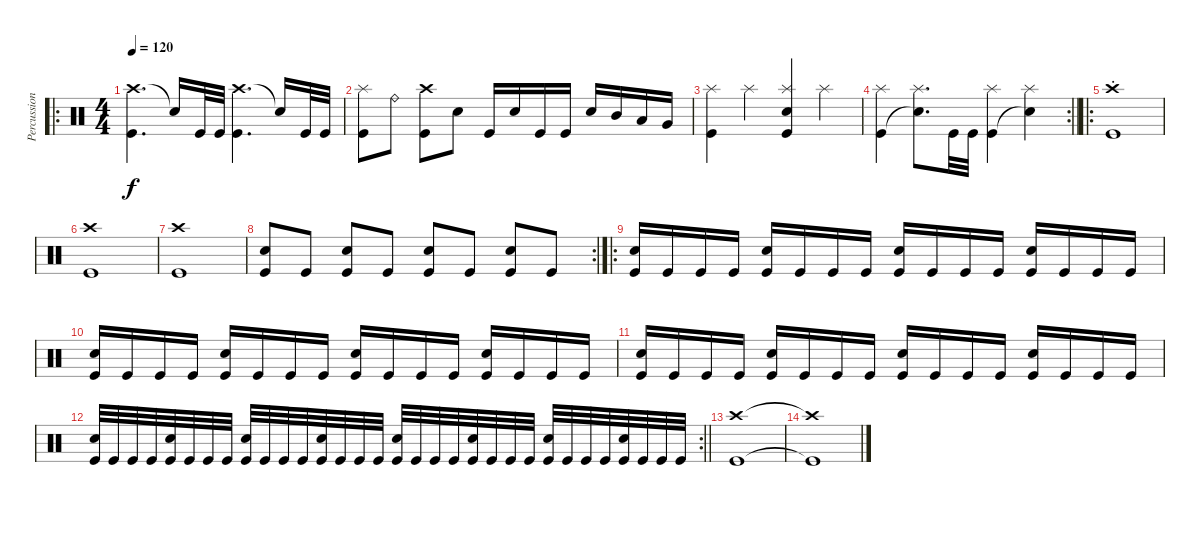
\track ("Percussion" "Percussion") {instrument percussion}
\staff {score}
\articulation defaults
\ro
\ts (4 4)
\tempo 120
\clef neutral
\ks c
("Crash high (hit)" "Kick (hit)").4{d dy f} "Snare (hit)"{t}.16 "Kick (hit)".32 "Kick (hit)".32 ("Crash high (hit)" "Kick (hit)").4{d} "Snare (hit)"{t}.16 "Kick (hit)".32 "Kick (hit)".32 |
("Splash (hit)" "Kick (hit)").8 "Ride (bell)".8 ("Crash high (hit)" "Kick (hit)").8 "Electric Snare (hit)".8 "Kick (hit)".16 "Electric Snare (hit)".16 "Kick (hit)".16 "Kick (hit)".16 "Electric Snare (hit)".16 "Mid Tom (hit)".16 "Low Tom (hit)".16 "Very Low Tom (hit)".16 |
("Splash (hit)" "Kick (hit)").4 "Splash (hit)".4 ("Splash (hit)" "Electric Snare (hit)" "Kick (hit)").4 "Splash (hit)".4 |
\rc 2
\barLineRight lightlight
("Splash (hit)" "Kick (hit)").4 ("Splash (hit)" "Snare (hit)"{t}).8{d} "Kick (hit)".32 "Kick (hit)".32 ("Splash (hit)" "Kick (hit)").4 ("Splash (hit)" "Snare (hit)"{t}).4 |
\ro
("Crash high (hit)"{st} "Kick (hit)").1 |
("Crash high (hit)" "Kick (hit)").1 |
("Crash high (hit)" "Kick (hit)").1 |
\rc 2
("Electric Snare (hit)" "Kick (hit)").8 "Kick (hit)".8 ("Electric Snare (hit)" "Kick (hit)").8 "Kick (hit)".8 ("Electric Snare (hit)" "Kick (hit)").8 "Kick (hit)".8 ("Electric Snare (hit)" "Kick (hit)").8 "Kick (hit)".8 |
\ro
("Electric Snare (hit)" "Kick (hit)").16 "Kick (hit)".16 "Kick (hit)".16 "Kick (hit)".16 ("Electric Snare (hit)" "Kick (hit)").16 "Kick (hit)".16 "Kick (hit)".16 "Kick (hit)".16 ("Electric Snare (hit)" "Kick (hit)").16 "Kick (hit)".16 "Kick (hit)".16 "Kick (hit)".16 ("Electric Snare (hit)" "Kick (hit)").16 "Kick (hit)".16 "Kick (hit)".16 "Kick (hit)".16 |
("Electric Snare (hit)" "Kick (hit)").16 "Kick (hit)".16 "Kick (hit)".16 "Kick (hit)".16 ("Electric Snare (hit)" "Kick (hit)").16 "Kick (hit)".16 "Kick (hit)".16 "Kick (hit)".16 ("Electric Snare (hit)" "Kick (hit)").16 "Kick (hit)".16 "Kick (hit)".16 "Kick (hit)".16 ("Electric Snare (hit)" "Kick (hit)").16 "Kick (hit)".16 "Kick (hit)".16 "Kick (hit)".16 |
("Electric Snare (hit)" "Kick (hit)").16 "Kick (hit)".16 "Kick (hit)".16 "Kick (hit)".16 ("Electric Snare (hit)" "Kick (hit)").16 "Kick (hit)".16 "Kick (hit)".16 "Kick (hit)".16 ("Electric Snare (hit)" "Kick (hit)").16 "Kick (hit)".16 "Kick (hit)".16 "Kick (hit)".16 ("Electric Snare (hit)" "Kick (hit)").16 "Kick (hit)".16 "Kick (hit)".16 "Kick (hit)".16 |
\rc 2
\barLineRight lightlight
("Electric Snare (hit)" "Kick (hit)").32 "Kick (hit)".32 "Kick (hit)".32 "Kick (hit)".32 ("Electric Snare (hit)" "Kick (hit)").32 "Kick (hit)".32 "Kick (hit)".32 "Kick (hit)".32 ("Electric Snare (hit)" "Kick (hit)").32 "Kick (hit)".32 "Kick (hit)".32 "Kick (hit)".32 ("Electric Snare (hit)" "Kick (hit)").32 "Kick (hit)".32 "Kick (hit)".32 "Kick (hit)".32 ("Electric Snare (hit)" "Kick (hit)").32 "Kick (hit)".32 "Kick (hit)".32 "Kick (hit)".32 ("Electric Snare (hit)" "Kick (hit)").32 "Kick (hit)".32 "Kick (hit)".32 "Kick (hit)".32 ("Electric Snare (hit)" "Kick (hit)").32 "Kick (hit)".32 "Kick (hit)".32 "Kick (hit)".32 ("Electric Snare (hit)" "Kick (hit)").32 "Kick (hit)".32 "Kick (hit)".32 "Kick (hit)".32 |
("Crash high (hit)" "Kick (hit)").1 |
("Crash high (hit)"{t} "Kick (hit)"{t}).1
